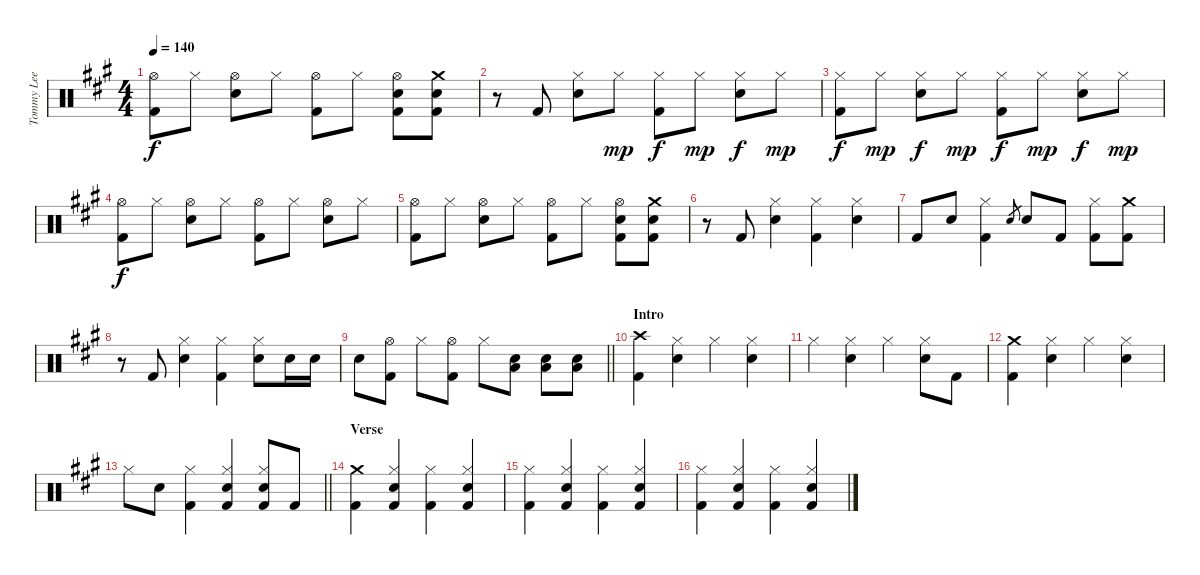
\track ("Tommy Lee - Drums" "Tommy Lee ") {instrument percussion}
\staff {score}
\articulation defaults
\ts (4 4)
\tempo 140
\clef neutral
\ks a
("Hi-Hat (open)" "Kick (hit) 2").8{dy f} "Hi-Hat (closed)".8 ("Hi-Hat (open)" "Snare (hit) 2").8 "Hi-Hat (closed)".8 ("Hi-Hat (open)" "Kick (hit) 2").8 "Hi-Hat (closed)".8 ("Hi-Hat (open)" "Snare (hit) 2" "Kick (hit) 2").8 ("Crash medium (hit)" "Snare (hit) 2" "Kick (hit) 2").8 |
r.8 "Kick (hit) 2".8 ("Hi-Hat (closed)" "Snare (hit) 2").8 "Hi-Hat (closed)".8{dy mp} ("Hi-Hat (closed)" "Kick (hit) 2").8{dy f} "Hi-Hat (closed)".8{dy mp} ("Hi-Hat (closed)" "Snare (hit) 2").8{dy f} "Hi-Hat (closed)".8{dy mp} |
("Hi-Hat (closed)" "Kick (hit) 2").8{dy f} "Hi-Hat (closed)".8{dy mp} ("Hi-Hat (closed)" "Snare (hit) 2").8{dy f} "Hi-Hat (closed)".8{dy mp} ("Hi-Hat (closed)" "Kick (hit) 2").8{dy f} "Hi-Hat (closed)".8{dy mp} ("Hi-Hat (closed)" "Snare (hit) 2").8{dy f} "Hi-Hat (closed)".8{dy mp} |
("Hi-Hat (open)" "Kick (hit) 2").8{dy f} "Hi-Hat (closed)".8 ("Hi-Hat (open)" "Snare (hit) 2").8 "Hi-Hat (closed)".8 ("Hi-Hat (open)" "Kick (hit) 2").8 "Hi-Hat (closed)".8 ("Hi-Hat (open)" "Snare (hit) 2").8 "Hi-Hat (closed)".8 |
("Hi-Hat (open)" "Kick (hit) 2").8 "Hi-Hat (closed)".8 ("Hi-Hat (open)" "Snare (hit) 2").8 "Hi-Hat (closed)".8 ("Hi-Hat (open)" "Kick (hit) 2").8 "Hi-Hat (closed)".8 ("Hi-Hat (open)" "Snare (hit) 2" "Kick (hit) 2").8 ("Crash medium (hit)" "Snare (hit) 2" "Kick (hit) 2").8 |
r.8 "Kick (hit) 2".8 ("Hi-Hat (closed)" "Snare (hit) 2").4 ("Hi-Hat (closed)" "Kick (hit) 2").4 ("Hi-Hat (closed)" "Snare (hit) 2").4 |
"Kick (hit) 2".8 "Snare (hit) 2".8 ("Hi-Hat (closed)" "Kick (hit) 2").4 "Snare (hit) 2".8{gr} "Snare (hit) 2".8 "Kick (hit) 2".8 ("Hi-Hat (closed)" "Kick (hit) 2").8 ("Crash medium (hit)" "Kick (hit) 2").8 |
r.8 "Kick (hit) 2".8 ("Hi-Hat (closed)" "Snare (hit) 2").4 ("Hi-Hat (closed)" "Kick (hit) 2").4 ("Hi-Hat (closed)" "Snare (hit) 2").8 "Snare (hit) 2".16 "Snare (hit) 2".16 |
\barLineRight lightlight "Snare (hit) 2".8
("Hi-Hat (open)" "Kick (hit) 2").8 "Hi-Hat (closed)".8 ("Hi-Hat (open)" "Kick (hit) 2").8 "Hi-Hat (closed)".8 ("Low Tom (hit)" "Snare (hit) 2").8 ("Low Tom (hit)" "Snare (hit) 2").8 ("Low Tom (hit)" "Snare (hit) 2").8 |
\section ("" "Intro")
("Crash high (hit)" "Kick (hit) 2").4 ("Hi-Hat (closed)" "Snare (hit) 2").4 "Hi-Hat (closed)".4 ("Hi-Hat (closed)" "Snare (hit) 2").4 |
"Hi-Hat (closed)".4 ("Hi-Hat (closed)" "Snare (hit) 2").4 "Hi-Hat (closed)".4 ("Hi-Hat (closed)" "Snare (hit) 2").8 "Kick (hit) 2".8 |
("Crash medium (hit)" "Kick (hit) 2").4 ("Hi-Hat (closed)" "Snare (hit) 2").4 "Hi-Hat (closed)".4 ("Hi-Hat (closed)" "Snare (hit) 2").4 |
\barLineRight lightlight "Hi-Hat (closed)".8 "Snare (hit) 2".8
("Hi-Hat (closed)" "Kick (hit) 2").4 ("Hi-Hat (closed)" "Snare (hit) 2" "Kick (hit) 2").4 ("Hi-Hat (closed)" "Snare (hit) 2" "Kick (hit) 2").8 "Kick (hit) 2".8 |
\section ("" "Verse")
("Crash medium (hit)" "Kick (hit) 2").4 ("Hi-Hat (closed)" "Snare (hit) 2" "Kick (hit) 2").4 ("Hi-Hat (closed)" "Kick (hit) 2").4 ("Hi-Hat (closed)" "Snare (hit) 2" "Kick (hit) 2").4 |
("Hi-Hat (closed)" "Kick (hit) 2").4 ("Hi-Hat (closed)" "Snare (hit) 2" "Kick (hit) 2").4 ("Hi-Hat (closed)" "Kick (hit) 2").4 ("Hi-Hat (closed)" "Snare (hit) 2" "Kick (hit) 2").4 |
("Hi-Hat (closed)" "Kick (hit) 2").4 ("Hi-Hat (closed)" "Snare (hit) 2" "Kick (hit) 2").4 ("Hi-Hat (closed)" "Kick (hit) 2").4 ("Hi-Hat (closed)" "Snare (hit) 2" "Kick (hit) 2").4
